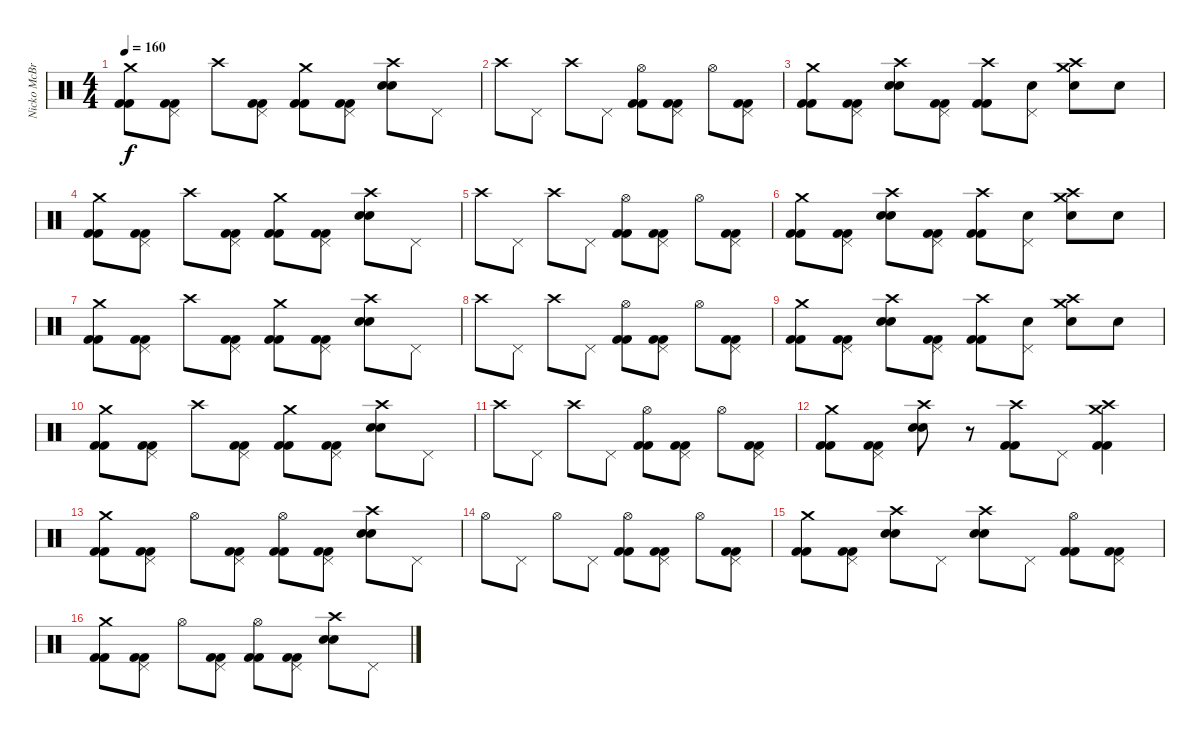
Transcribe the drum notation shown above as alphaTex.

\track ("Nicko McBrain" "Nicko McBr") {instrument percussion}
\staff {score}
\articulation defaults
\ts (4 4)
\tempo 160
\clef neutral
\ks c
("Crash medium (hit)" "Kick (hit) 2" "Kick (hit) 2").8{dy f} ("Pedal Hi-Hat (hit)" "Kick (hit) 2" "Kick (hit) 2").8 "Crash high (hit)".8 ("Pedal Hi-Hat (hit)" "Kick (hit) 2" "Kick (hit) 2").8 ("Crash medium (hit)" "Kick (hit) 2" "Kick (hit) 2").8 ("Pedal Hi-Hat (hit)" "Kick (hit) 2" "Kick (hit) 2").8 ("Crash high (hit)" "Snare (hit) 2" "Snare (hit) 2").8 "Pedal Hi-Hat (hit)".8 |
"Crash high (hit)".8 "Pedal Hi-Hat (hit)".8 "Crash high (hit)".8 "Pedal Hi-Hat (hit)".8 ("Hi-Hat (open)" "Kick (hit) 2" "Kick (hit) 2").8 ("Pedal Hi-Hat (hit)" "Kick (hit) 2" "Kick (hit) 2").8 "Hi-Hat (open)".8 ("Pedal Hi-Hat (hit)" "Kick (hit) 2" "Kick (hit) 2").8 |
("Crash medium (hit)" "Kick (hit) 2" "Kick (hit) 2").8 ("Pedal Hi-Hat (hit)" "Kick (hit) 2" "Kick (hit) 2").8 ("Crash high (hit)" "Snare (hit) 2" "Snare (hit) 2").8 ("Pedal Hi-Hat (hit)" "Kick (hit) 2" "Kick (hit) 2").8 ("Crash high (hit)" "Kick (hit) 2" "Kick (hit) 2").8 ("Pedal Hi-Hat (hit)" "Snare (hit) 2").8 ("Crash high (hit)" "Crash medium (hit)" "Snare (hit) 2").8 "Snare (hit) 2".8 |
("Crash medium (hit)" "Kick (hit) 2" "Kick (hit) 2").8 ("Pedal Hi-Hat (hit)" "Kick (hit) 2" "Kick (hit) 2").8 "Crash high (hit)".8 ("Pedal Hi-Hat (hit)" "Kick (hit) 2" "Kick (hit) 2").8 ("Crash medium (hit)" "Kick (hit) 2" "Kick (hit) 2").8 ("Pedal Hi-Hat (hit)" "Kick (hit) 2" "Kick (hit) 2").8 ("Crash high (hit)" "Snare (hit) 2" "Snare (hit) 2").8 "Pedal Hi-Hat (hit)".8 |
"Crash high (hit)".8 "Pedal Hi-Hat (hit)".8 "Crash high (hit)".8 "Pedal Hi-Hat (hit)".8 ("Hi-Hat (open)" "Kick (hit) 2" "Kick (hit) 2").8 ("Pedal Hi-Hat (hit)" "Kick (hit) 2" "Kick (hit) 2").8 "Hi-Hat (open)".8 ("Pedal Hi-Hat (hit)" "Kick (hit) 2" "Kick (hit) 2").8 |
("Crash medium (hit)" "Kick (hit) 2" "Kick (hit) 2").8 ("Pedal Hi-Hat (hit)" "Kick (hit) 2" "Kick (hit) 2").8 ("Crash high (hit)" "Snare (hit) 2" "Snare (hit) 2").8 ("Pedal Hi-Hat (hit)" "Kick (hit) 2" "Kick (hit) 2").8 ("Crash high (hit)" "Kick (hit) 2" "Kick (hit) 2").8 ("Pedal Hi-Hat (hit)" "Snare (hit) 2").8 ("Crash high (hit)" "Crash medium (hit)" "Snare (hit) 2").8 "Snare (hit) 2".8 |
("Crash medium (hit)" "Kick (hit) 2" "Kick (hit) 2").8 ("Pedal Hi-Hat (hit)" "Kick (hit) 2" "Kick (hit) 2").8 "Crash high (hit)".8 ("Pedal Hi-Hat (hit)" "Kick (hit) 2" "Kick (hit) 2").8 ("Crash medium (hit)" "Kick (hit) 2" "Kick (hit) 2").8 ("Pedal Hi-Hat (hit)" "Kick (hit) 2" "Kick (hit) 2").8 ("Crash high (hit)" "Snare (hit) 2" "Snare (hit) 2").8 "Pedal Hi-Hat (hit)".8 |
"Crash high (hit)".8 "Pedal Hi-Hat (hit)".8 "Crash high (hit)".8 "Pedal Hi-Hat (hit)".8 ("Hi-Hat (open)" "Kick (hit) 2" "Kick (hit) 2").8 ("Pedal Hi-Hat (hit)" "Kick (hit) 2" "Kick (hit) 2").8 "Hi-Hat (open)".8 ("Pedal Hi-Hat (hit)" "Kick (hit) 2" "Kick (hit) 2").8 |
("Crash medium (hit)" "Kick (hit) 2" "Kick (hit) 2").8 ("Pedal Hi-Hat (hit)" "Kick (hit) 2" "Kick (hit) 2").8 ("Crash high (hit)" "Snare (hit) 2" "Snare (hit) 2").8 ("Pedal Hi-Hat (hit)" "Kick (hit) 2" "Kick (hit) 2").8 ("Crash high (hit)" "Kick (hit) 2" "Kick (hit) 2").8 ("Pedal Hi-Hat (hit)" "Snare (hit) 2").8 ("Crash high (hit)" "Crash medium (hit)" "Snare (hit) 2").8 "Snare (hit) 2".8 |
("Crash medium (hit)" "Kick (hit) 2" "Kick (hit) 2").8 ("Pedal Hi-Hat (hit)" "Kick (hit) 2" "Kick (hit) 2").8 "Crash high (hit)".8 ("Pedal Hi-Hat (hit)" "Kick (hit) 2" "Kick (hit) 2").8 ("Crash medium (hit)" "Kick (hit) 2" "Kick (hit) 2").8 ("Pedal Hi-Hat (hit)" "Kick (hit) 2" "Kick (hit) 2").8 ("Crash high (hit)" "Snare (hit) 2" "Snare (hit) 2").8 "Pedal Hi-Hat (hit)".8 |
"Crash high (hit)".8 "Pedal Hi-Hat (hit)".8 "Crash high (hit)".8 "Pedal Hi-Hat (hit)".8 ("Hi-Hat (open)" "Kick (hit) 2" "Kick (hit) 2").8 ("Pedal Hi-Hat (hit)" "Kick (hit) 2" "Kick (hit) 2").8 "Hi-Hat (open)".8 ("Pedal Hi-Hat (hit)" "Kick (hit) 2" "Kick (hit) 2").8 |
("Crash medium (hit)" "Kick (hit) 2" "Kick (hit) 2").8 ("Pedal Hi-Hat (hit)" "Kick (hit) 2" "Kick (hit) 2").8 ("Crash high (hit)" "Snare (hit) 2" "Snare (hit) 2").8 r.8 ("Crash high (hit)" "Kick (hit) 2" "Kick (hit) 2").8 "Pedal Hi-Hat (hit)".8 ("Crash high (hit)" "Crash medium (hit)" "Kick (hit) 2" "Kick (hit) 2").4 |
("Crash medium (hit)" "Kick (hit) 2" "Kick (hit) 2").8 ("Pedal Hi-Hat (hit)" "Kick (hit) 2" "Kick (hit) 2").8 "Hi-Hat (open)".8 ("Pedal Hi-Hat (hit)" "Kick (hit) 2" "Kick (hit) 2").8 ("Hi-Hat (open)" "Kick (hit) 2" "Kick (hit) 2").8 ("Pedal Hi-Hat (hit)" "Kick (hit) 2" "Kick (hit) 2").8 ("Crash high (hit)" "Snare (hit) 2" "Snare (hit) 2").8 "Pedal Hi-Hat (hit)".8 |
"Hi-Hat (open)".8 "Pedal Hi-Hat (hit)".8 "Hi-Hat (open)".8 "Pedal Hi-Hat (hit)".8 ("Hi-Hat (open)" "Kick (hit) 2" "Kick (hit) 2").8 ("Pedal Hi-Hat (hit)" "Kick (hit) 2" "Kick (hit) 2").8 "Hi-Hat (open)".8 ("Pedal Hi-Hat (hit)" "Kick (hit) 2" "Kick (hit) 2").8 |
("Crash medium (hit)" "Kick (hit) 2" "Kick (hit) 2").8 ("Pedal Hi-Hat (hit)" "Kick (hit) 2" "Kick (hit) 2").8 ("Crash high (hit)" "Snare (hit) 2" "Snare (hit) 2").8 "Pedal Hi-Hat (hit)".8 ("Crash high (hit)" "Snare (hit) 2" "Snare (hit) 2").8 "Pedal Hi-Hat (hit)".8 ("Hi-Hat (open)" "Kick (hit) 2" "Kick (hit) 2").8 ("Pedal Hi-Hat (hit)" "Kick (hit) 2" "Kick (hit) 2").8 |
("Crash medium (hit)" "Kick (hit) 2" "Kick (hit) 2").8 ("Pedal Hi-Hat (hit)" "Kick (hit) 2" "Kick (hit) 2").8 "Hi-Hat (open)".8 ("Pedal Hi-Hat (hit)" "Kick (hit) 2" "Kick (hit) 2").8 ("Hi-Hat (open)" "Kick (hit) 2" "Kick (hit) 2").8 ("Pedal Hi-Hat (hit)" "Kick (hit) 2" "Kick (hit) 2").8 ("Crash high (hit)" "Snare (hit) 2" "Snare (hit) 2").8 "Pedal Hi-Hat (hit)".8
